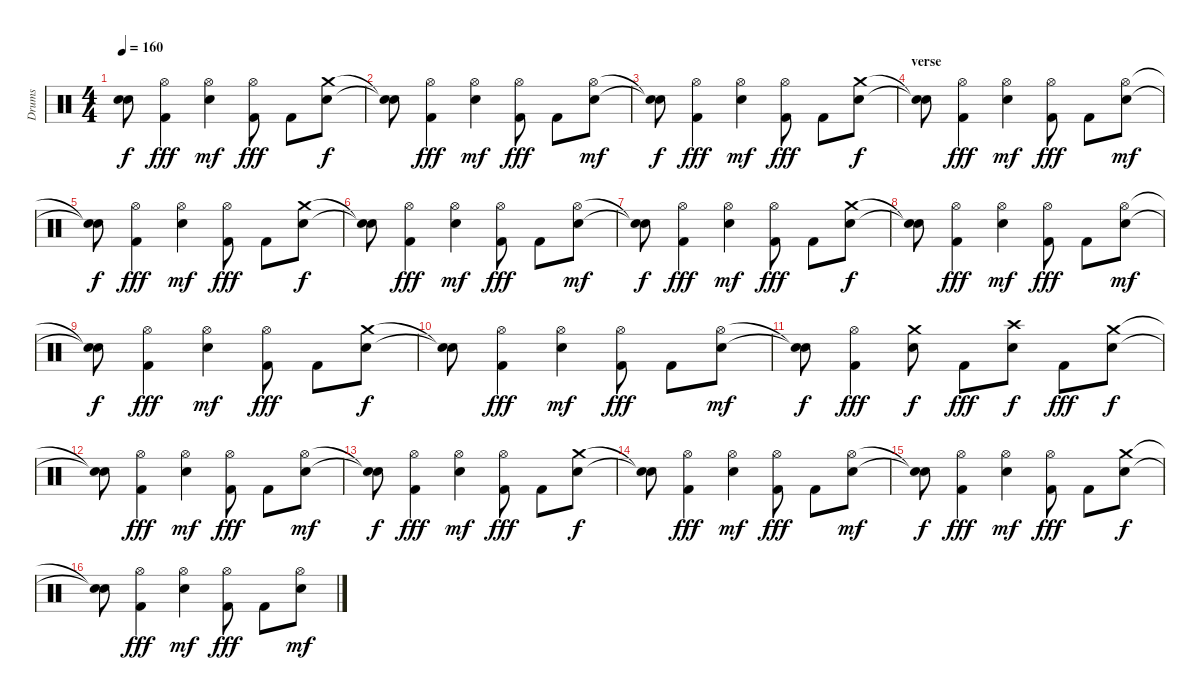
\track ("Drums" "Drums") {instrument percussion}
\staff {score}
\articulation defaults
\ts (4 4)
\tempo 160
\clef neutral
\ks c
("Snare (hit)"{t} "Snare (hit)"{t}).8{dy f} ("Hi-Hat (open)" "Kick (hit) 2").4{dy fff} ("Hi-Hat (open)" "Electric Snare (hit)").4{dy mf} ("Hi-Hat (open)" "Kick (hit) 2").8{dy fff} "Kick (hit) 2".8 ("Crash medium (hit)" "Electric Snare (hit)").8{dy f} |
("Snare (hit)"{t} "Snare (hit)"{t}).8 ("Hi-Hat (open)" "Kick (hit) 2").4{dy fff} ("Hi-Hat (open)" "Electric Snare (hit)").4{dy mf} ("Hi-Hat (open)" "Kick (hit) 2").8{dy fff} "Kick (hit) 2".8 ("Hi-Hat (open)" "Electric Snare (hit)").8{dy mf} |
("Snare (hit)"{t} "Snare (hit)"{t}).8{dy f} ("Hi-Hat (open)" "Kick (hit) 2").4{dy fff} ("Hi-Hat (open)" "Electric Snare (hit)").4{dy mf} ("Hi-Hat (open)" "Kick (hit) 2").8{dy fff} "Kick (hit) 2".8 ("Crash medium (hit)" "Electric Snare (hit)").8{dy f} |
\section ("" "verse")
("Snare (hit)"{t} "Snare (hit)"{t}).8 ("Hi-Hat (open)" "Kick (hit) 2").4{dy fff} ("Hi-Hat (open)" "Electric Snare (hit)").4{dy mf} ("Hi-Hat (open)" "Kick (hit) 2").8{dy fff} "Kick (hit) 2".8 ("Hi-Hat (open)" "Electric Snare (hit)").8{dy mf} |
("Snare (hit)"{t} "Snare (hit)"{t}).8{dy f} ("Hi-Hat (open)" "Kick (hit) 2").4{dy fff} ("Hi-Hat (open)" "Electric Snare (hit)").4{dy mf} ("Hi-Hat (open)" "Kick (hit) 2").8{dy fff} "Kick (hit) 2".8 ("Crash medium (hit)" "Electric Snare (hit)").8{dy f} |
("Snare (hit)"{t} "Snare (hit)"{t}).8 ("Hi-Hat (open)" "Kick (hit) 2").4{dy fff} ("Hi-Hat (open)" "Electric Snare (hit)").4{dy mf} ("Hi-Hat (open)" "Kick (hit) 2").8{dy fff} "Kick (hit) 2".8 ("Hi-Hat (open)" "Electric Snare (hit)").8{dy mf} |
("Snare (hit)"{t} "Snare (hit)"{t}).8{dy f} ("Hi-Hat (open)" "Kick (hit) 2").4{dy fff} ("Hi-Hat (open)" "Electric Snare (hit)").4{dy mf} ("Hi-Hat (open)" "Kick (hit) 2").8{dy fff} "Kick (hit) 2".8 ("Crash medium (hit)" "Electric Snare (hit)").8{dy f} |
("Snare (hit)"{t} "Snare (hit)"{t}).8 ("Hi-Hat (open)" "Kick (hit) 2").4{dy fff} ("Hi-Hat (open)" "Electric Snare (hit)").4{dy mf} ("Hi-Hat (open)" "Kick (hit) 2").8{dy fff} "Kick (hit) 2".8 ("Hi-Hat (open)" "Electric Snare (hit)").8{dy mf} |
("Snare (hit)"{t} "Snare (hit)"{t}).8{dy f} ("Hi-Hat (open)" "Kick (hit) 2").4{dy fff} ("Hi-Hat (open)" "Electric Snare (hit)").4{dy mf} ("Hi-Hat (open)" "Kick (hit) 2").8{dy fff} "Kick (hit) 2".8 ("Crash medium (hit)" "Electric Snare (hit)").8{dy f} |
("Snare (hit)"{t} "Snare (hit)"{t}).8 ("Hi-Hat (open)" "Kick (hit) 2").4{dy fff} ("Hi-Hat (open)" "Electric Snare (hit)").4{dy mf} ("Hi-Hat (open)" "Kick (hit) 2").8{dy fff} "Kick (hit) 2".8 ("Hi-Hat (open)" "Electric Snare (hit)").8{dy mf} |
("Snare (hit)"{t} "Snare (hit)"{t}).8{dy f} ("Hi-Hat (open)" "Kick (hit) 2").4{dy fff} ("Crash medium (hit)" "Electric Snare (hit)").8{dy f} "Kick (hit) 2".8{dy fff} ("Crash high (hit)" "Electric Snare (hit)").8{dy f} "Kick (hit) 2".8{dy fff} ("Crash medium (hit)" "Electric Snare (hit)").8{dy f} |
("Snare (hit)"{t} "Snare (hit)"{t}).8 ("Hi-Hat (open)" "Kick (hit) 2").4{dy fff} ("Hi-Hat (open)" "Electric Snare (hit)").4{dy mf} ("Hi-Hat (open)" "Kick (hit) 2").8{dy fff} "Kick (hit) 2".8 ("Hi-Hat (open)" "Electric Snare (hit)").8{dy mf} |
("Snare (hit)"{t} "Snare (hit)"{t}).8{dy f} ("Hi-Hat (open)" "Kick (hit) 2").4{dy fff} ("Hi-Hat (open)" "Electric Snare (hit)").4{dy mf} ("Hi-Hat (open)" "Kick (hit) 2").8{dy fff} "Kick (hit) 2".8 ("Crash medium (hit)" "Electric Snare (hit)").8{dy f} |
("Snare (hit)"{t} "Snare (hit)"{t}).8 ("Hi-Hat (open)" "Kick (hit) 2").4{dy fff} ("Hi-Hat (open)" "Electric Snare (hit)").4{dy mf} ("Hi-Hat (open)" "Kick (hit) 2").8{dy fff} "Kick (hit) 2".8 ("Hi-Hat (open)" "Electric Snare (hit)").8{dy mf} |
("Snare (hit)"{t} "Snare (hit)"{t}).8{dy f} ("Hi-Hat (open)" "Kick (hit) 2").4{dy fff} ("Hi-Hat (open)" "Electric Snare (hit)").4{dy mf} ("Hi-Hat (open)" "Kick (hit) 2").8{dy fff} "Kick (hit) 2".8 ("Crash medium (hit)" "Electric Snare (hit)").8{dy f} |
("Snare (hit)"{t} "Snare (hit)"{t}).8 ("Hi-Hat (open)" "Kick (hit) 2").4{dy fff} ("Hi-Hat (open)" "Electric Snare (hit)").4{dy mf} ("Hi-Hat (open)" "Kick (hit) 2").8{dy fff} "Kick (hit) 2".8 ("Hi-Hat (open)" "Electric Snare (hit)").8{dy mf}
